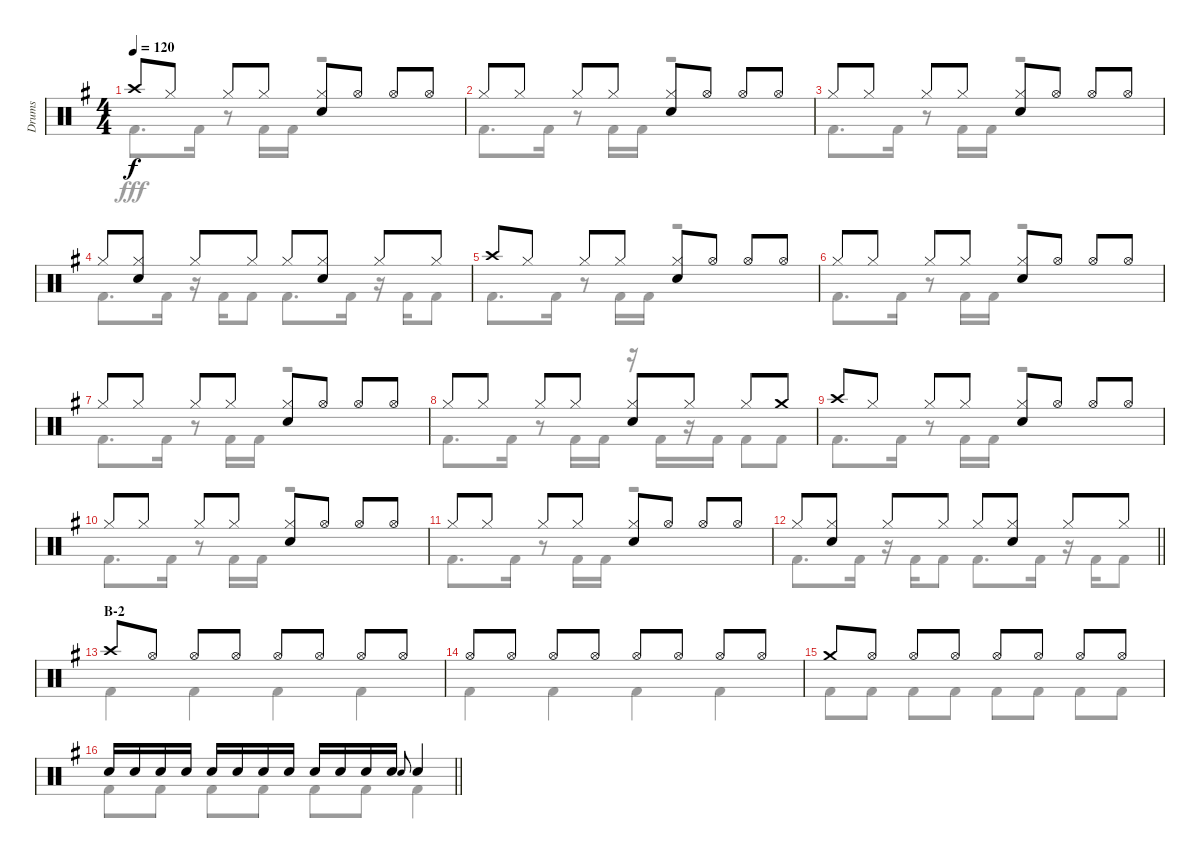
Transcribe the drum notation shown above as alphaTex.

\track ("Drums" "Drums") {instrument percussion}
\staff {score}
\articulation defaults
\voice
\ts (4 4)
\tempo 120
\clef neutral
\ks g "Crash high (hit)".8{dy f} "Hi-Hat (closed)".8 "Hi-Hat (closed)".8 "Hi-Hat (closed)".8
("Hi-Hat (closed)" "Snare (hit) 2").8 "Hi-Hat (open)".8 "Hi-Hat (open)".8 "Hi-Hat (open)".8 |
"Hi-Hat (closed)".8 "Hi-Hat (closed)".8 "Hi-Hat (closed)".8 "Hi-Hat (closed)".8 ("Hi-Hat (closed)" "Snare (hit) 2").8 "Hi-Hat (open)".8 "Hi-Hat (open)".8 "Hi-Hat (open)".8 |
"Hi-Hat (closed)".8 "Hi-Hat (closed)".8 "Hi-Hat (closed)".8 "Hi-Hat (closed)".8 ("Hi-Hat (closed)" "Snare (hit) 2").8 "Hi-Hat (open)".8 "Hi-Hat (open)".8 "Hi-Hat (open)".8 |
"Hi-Hat (closed)".8 ("Hi-Hat (closed)" "Snare (hit) 2").8 "Hi-Hat (closed)".8 "Hi-Hat (closed)".8 "Hi-Hat (closed)".8 ("Hi-Hat (closed)" "Snare (hit) 2").8 "Hi-Hat (closed)".8 "Hi-Hat (closed)".8 |
"Crash high (hit)".8 "Hi-Hat (closed)".8 "Hi-Hat (closed)".8 "Hi-Hat (closed)".8 ("Hi-Hat (closed)" "Snare (hit) 2").8 "Hi-Hat (open)".8 "Hi-Hat (open)".8 "Hi-Hat (open)".8 |
"Hi-Hat (closed)".8 "Hi-Hat (closed)".8 "Hi-Hat (closed)".8 "Hi-Hat (closed)".8 ("Hi-Hat (closed)" "Snare (hit) 2").8 "Hi-Hat (open)".8 "Hi-Hat (open)".8 "Hi-Hat (open)".8 |
"Hi-Hat (closed)".8 "Hi-Hat (closed)".8 "Hi-Hat (closed)".8 "Hi-Hat (closed)".8 ("Hi-Hat (closed)" "Snare (hit) 2").8 "Hi-Hat (open)".8 "Hi-Hat (open)".8 "Hi-Hat (open)".8 |
"Hi-Hat (closed)".8 "Hi-Hat (closed)".8 "Hi-Hat (closed)".8 "Hi-Hat (closed)".8 ("Hi-Hat (closed)" "Snare (hit) 2").8 "Hi-Hat (closed)".8 "Hi-Hat (closed)".8 "Crash medium (hit)".8 |
"Crash high (hit)".8 "Hi-Hat (closed)".8 "Hi-Hat (closed)".8 "Hi-Hat (closed)".8 ("Hi-Hat (closed)" "Snare (hit) 2").8 "Hi-Hat (open)".8 "Hi-Hat (open)".8 "Hi-Hat (open)".8 |
"Hi-Hat (closed)".8 "Hi-Hat (closed)".8 "Hi-Hat (closed)".8 "Hi-Hat (closed)".8 ("Hi-Hat (closed)" "Snare (hit) 2").8 "Hi-Hat (open)".8 "Hi-Hat (open)".8 "Hi-Hat (open)".8 |
"Hi-Hat (closed)".8 "Hi-Hat (closed)".8 "Hi-Hat (closed)".8 "Hi-Hat (closed)".8 ("Hi-Hat (closed)" "Snare (hit) 2").8 "Hi-Hat (open)".8 "Hi-Hat (open)".8 "Hi-Hat (open)".8 |
\barLineRight lightlight "Hi-Hat (closed)".8
("Hi-Hat (closed)" "Snare (hit) 2").8 "Hi-Hat (closed)".8 "Hi-Hat (closed)".8 "Hi-Hat (closed)".8 ("Hi-Hat (closed)" "Snare (hit) 2").8 "Hi-Hat (closed)".8 "Hi-Hat (closed)".8 |
\section ("" "B-2")
\ks eminor "Crash high (hit)".8 "Hi-Hat (open)".8 "Hi-Hat (open)".8 "Hi-Hat (open)".8 "Hi-Hat (open)".8 "Hi-Hat (open)".8 "Hi-Hat (open)".8 "Hi-Hat (open)".8
|
"Hi-Hat (open)".8 "Hi-Hat (open)".8 "Hi-Hat (open)".8 "Hi-Hat (open)".8 "Hi-Hat (open)".8 "Hi-Hat (open)".8 "Hi-Hat (open)".8 "Hi-Hat (open)".8 |
"Crash medium (hit)".8 "Hi-Hat (open)".8 "Hi-Hat (open)".8 "Hi-Hat (open)".8 "Hi-Hat (open)".8 "Hi-Hat (open)".8 "Hi-Hat (open)".8 "Hi-Hat (open)".8 |
\barLineRight lightlight "Snare (hit) 2".16 "Snare (hit) 2".16 "Snare (hit) 2".16 "Snare (hit) 2".16 "Snare (hit) 2".16 "Snare (hit) 2".16 "Snare (hit) 2".16 "Snare (hit) 2".16 "Snare (hit) 2".16 "Snare (hit) 2".16 "Snare (hit) 2".16 "Snare (hit) 2".16 "Snare (hit) 2".8{gr onbeat} "Snare (hit) 2".4
\voice
\clef neutral
\ottava regular
\simile none
\ks g "Kick (hit) 2".8{d dy fff} "Kick (hit) 2".16
r.8 "Kick (hit) 2".16 "Kick (hit) 2".16 r.2 |
"Kick (hit) 2".8{d} "Kick (hit) 2".16 r.8 "Kick (hit) 2".16 "Kick (hit) 2".16 r.2 |
"Kick (hit) 2".8{d} "Kick (hit) 2".16 r.8 "Kick (hit) 2".16 "Kick (hit) 2".16 r.2 |
"Kick (hit) 2".8{d} "Kick (hit) 2".16 r.16 "Kick (hit) 2".16 "Kick (hit) 2".8 "Kick (hit) 2".8{d} "Kick (hit) 2".16 r.16 "Kick (hit) 2".16 "Kick (hit) 2".8 |
"Kick (hit) 2".8{d} "Kick (hit) 2".16 r.8 "Kick (hit) 2".16 "Kick (hit) 2".16 r.2 |
"Kick (hit) 2".8{d} "Kick (hit) 2".16 r.8 "Kick (hit) 2".16 "Kick (hit) 2".16 r.2 |
"Kick (hit) 2".8{d} "Kick (hit) 2".16 r.8 "Kick (hit) 2".16 "Kick (hit) 2".16 r.2 |
"Kick (hit) 2".8{d} "Kick (hit) 2".16 r.8 "Kick (hit) 2".16 "Kick (hit) 2".16 r.16 "Kick (hit) 2".16 r.16 "Kick (hit) 2".16 "Kick (hit) 2".8 "Kick (hit) 2".8 |
"Kick (hit) 2".8{d} "Kick (hit) 2".16 r.8 "Kick (hit) 2".16 "Kick (hit) 2".16 r.2 |
"Kick (hit) 2".8{d} "Kick (hit) 2".16 r.8 "Kick (hit) 2".16 "Kick (hit) 2".16 r.2 |
"Kick (hit) 2".8{d} "Kick (hit) 2".16 r.8 "Kick (hit) 2".16 "Kick (hit) 2".16 r.2 |
\barLineRight lightlight "Kick (hit) 2".8{d} "Kick (hit) 2".16
r.16 "Kick (hit) 2".16 "Kick (hit) 2".8 "Kick (hit) 2".8{d} "Kick (hit) 2".16 r.16 "Kick (hit) 2".16 "Kick (hit) 2".8 |
\ks eminor "Kick (hit) 2".4 "Kick (hit) 2".4 "Kick (hit) 2".4 "Kick (hit) 2".4
|
"Kick (hit) 2".4 "Kick (hit) 2".4 "Kick (hit) 2".4 "Kick (hit) 2".4 |
"Kick (hit) 2".8 "Kick (hit) 2".8 "Kick (hit) 2".8 "Kick (hit) 2".8 "Kick (hit) 2".8 "Kick (hit) 2".8 "Kick (hit) 2".8 "Kick (hit) 2".8 |
\barLineRight lightlight "Kick (hit) 2".8 "Kick (hit) 2".8 "Kick (hit) 2".8 "Kick (hit) 2".8 "Kick (hit) 2".8 "Kick (hit) 2".8 "Kick (hit) 2".4
